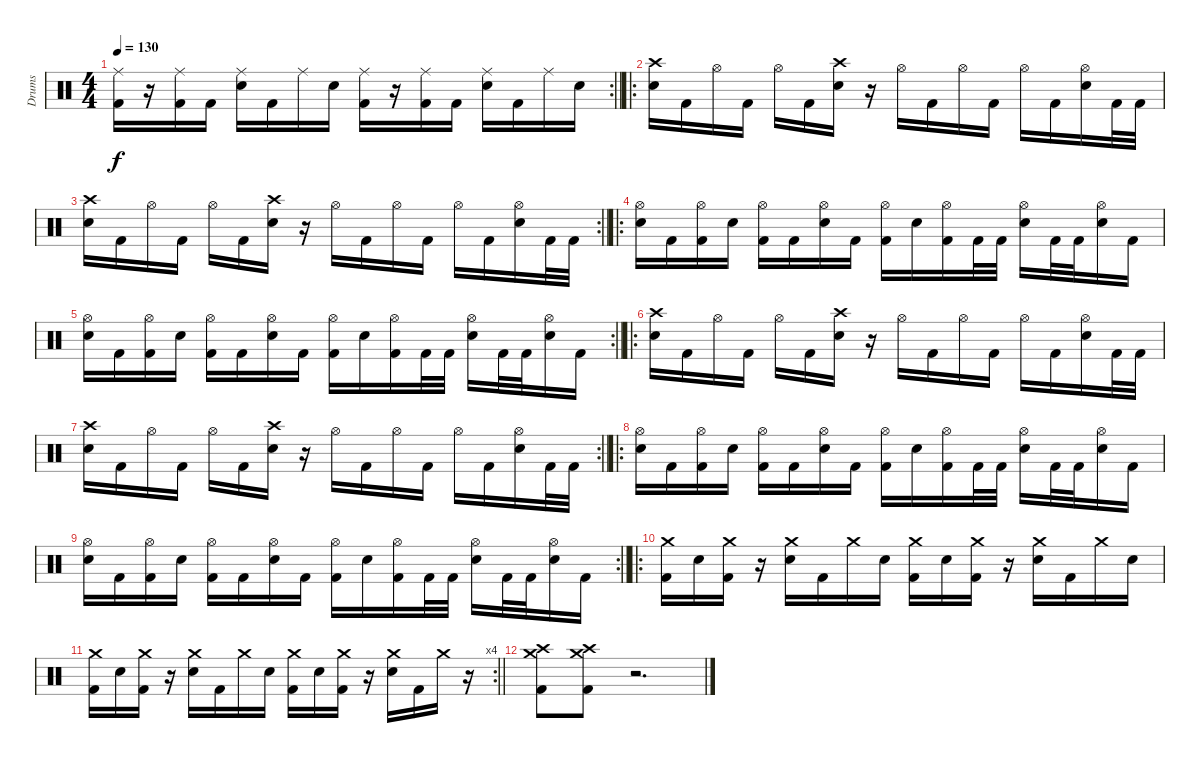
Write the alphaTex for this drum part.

\track ("Drums" "Drums") {instrument percussion}
\staff {score}
\articulation defaults
\rc 2
\ts (4 4)
\tempo 130
\clef neutral
\barLineRight lightlight
\ks c
("Ride (middle)" "Kick (hit) 2").16{dy f} r.16 ("Ride (middle)" "Kick (hit) 2").16 "Kick (hit) 2".16 ("Ride (middle)" "Electric Snare (hit)").16 "Kick (hit) 2".16 "Ride (middle)".16 "Electric Snare (hit)".16 ("Ride (middle)" "Kick (hit) 2").16 r.16 ("Ride (middle)" "Kick (hit) 2").16 "Kick (hit) 2".16 ("Ride (middle)" "Electric Snare (hit)").16 "Kick (hit) 2".16 "Ride (middle)".16 "Electric Snare (hit)".16 |
\ro
("Crash high (hit)" "Electric Snare (hit)").16 "Kick (hit) 2".16 "Hi-Hat (open)".16 "Kick (hit) 2".16 "Hi-Hat (open)".16 "Kick (hit) 2".16 ("Crash high (hit)" "Electric Snare (hit)").16 r.16 "Hi-Hat (open)".16 "Kick (hit) 2".16 "Hi-Hat (open)".16 "Kick (hit) 2".16 "Hi-Hat (open)".16 "Kick (hit) 2".16 ("Hi-Hat (open)" "Electric Snare (hit)").16 "Kick (hit) 2".32 "Kick (hit) 2".32 |
\rc 2
\barLineRight lightlight
("Crash high (hit)" "Electric Snare (hit)").16 "Kick (hit) 2".16 "Hi-Hat (open)".16 "Kick (hit) 2".16 "Hi-Hat (open)".16 "Kick (hit) 2".16 ("Crash high (hit)" "Electric Snare (hit)").16 r.16 "Hi-Hat (open)".16 "Kick (hit) 2".16 "Hi-Hat (open)".16 "Kick (hit) 2".16 "Hi-Hat (open)".16 "Kick (hit) 2".16 ("Hi-Hat (open)" "Electric Snare (hit)").16 "Kick (hit) 2".32 "Kick (hit) 2".32 |
\ro
("Hi-Hat (open)" "Electric Snare (hit)").16 "Kick (hit) 2".16 ("Hi-Hat (open)" "Kick (hit) 2").16 "Electric Snare (hit)".16 ("Hi-Hat (open)" "Kick (hit) 2").16 "Kick (hit) 2".16 ("Hi-Hat (open)" "Electric Snare (hit)").16 "Kick (hit) 2".16 ("Hi-Hat (open)" "Kick (hit) 2").16 "Electric Snare (hit)".16 ("Hi-Hat (open)" "Kick (hit) 2").16 "Kick (hit) 2".32 "Kick (hit) 2".32 ("Hi-Hat (open)" "Electric Snare (hit)").16 "Kick (hit) 2".32 "Kick (hit) 2".32 ("Hi-Hat (open)" "Electric Snare (hit)").16 "Kick (hit) 2".16 |
\rc 2
\barLineRight lightlight
("Hi-Hat (open)" "Electric Snare (hit)").16 "Kick (hit) 2".16 ("Hi-Hat (open)" "Kick (hit) 2").16 "Electric Snare (hit)".16 ("Hi-Hat (open)" "Kick (hit) 2").16 "Kick (hit) 2".16 ("Hi-Hat (open)" "Electric Snare (hit)").16 "Kick (hit) 2".16 ("Hi-Hat (open)" "Kick (hit) 2").16 "Electric Snare (hit)".16 ("Hi-Hat (open)" "Kick (hit) 2").16 "Kick (hit) 2".32 "Kick (hit) 2".32 ("Hi-Hat (open)" "Electric Snare (hit)").16 "Kick (hit) 2".32 "Kick (hit) 2".32 ("Hi-Hat (open)" "Electric Snare (hit)").16 "Kick (hit) 2".16 |
\ro
("Crash high (hit)" "Electric Snare (hit)").16 "Kick (hit) 2".16 "Hi-Hat (open)".16 "Kick (hit) 2".16 "Hi-Hat (open)".16 "Kick (hit) 2".16 ("Crash high (hit)" "Electric Snare (hit)").16 r.16 "Hi-Hat (open)".16 "Kick (hit) 2".16 "Hi-Hat (open)".16 "Kick (hit) 2".16 "Hi-Hat (open)".16 "Kick (hit) 2".16 ("Hi-Hat (open)" "Electric Snare (hit)").16 "Kick (hit) 2".32 "Kick (hit) 2".32 |
\rc 2
\barLineRight lightlight
("Crash high (hit)" "Electric Snare (hit)").16 "Kick (hit) 2".16 "Hi-Hat (open)".16 "Kick (hit) 2".16 "Hi-Hat (open)".16 "Kick (hit) 2".16 ("Crash high (hit)" "Electric Snare (hit)").16 r.16 "Hi-Hat (open)".16 "Kick (hit) 2".16 "Hi-Hat (open)".16 "Kick (hit) 2".16 "Hi-Hat (open)".16 "Kick (hit) 2".16 ("Hi-Hat (open)" "Electric Snare (hit)").16 "Kick (hit) 2".32 "Kick (hit) 2".32 |
\ro
("Hi-Hat (open)" "Electric Snare (hit)").16 "Kick (hit) 2".16 ("Hi-Hat (open)" "Kick (hit) 2").16 "Electric Snare (hit)".16 ("Hi-Hat (open)" "Kick (hit) 2").16 "Kick (hit) 2".16 ("Hi-Hat (open)" "Electric Snare (hit)").16 "Kick (hit) 2".16 ("Hi-Hat (open)" "Kick (hit) 2").16 "Electric Snare (hit)".16 ("Hi-Hat (open)" "Kick (hit) 2").16 "Kick (hit) 2".32 "Kick (hit) 2".32 ("Hi-Hat (open)" "Electric Snare (hit)").16 "Kick (hit) 2".32 "Kick (hit) 2".32 ("Hi-Hat (open)" "Electric Snare (hit)").16 "Kick (hit) 2".16 |
\rc 2
\barLineRight lightlight
("Hi-Hat (open)" "Electric Snare (hit)").16 "Kick (hit) 2".16 ("Hi-Hat (open)" "Kick (hit) 2").16 "Electric Snare (hit)".16 ("Hi-Hat (open)" "Kick (hit) 2").16 "Kick (hit) 2".16 ("Hi-Hat (open)" "Electric Snare (hit)").16 "Kick (hit) 2".16 ("Hi-Hat (open)" "Kick (hit) 2").16 "Electric Snare (hit)".16 ("Hi-Hat (open)" "Kick (hit) 2").16 "Kick (hit) 2".32 "Kick (hit) 2".32 ("Hi-Hat (open)" "Electric Snare (hit)").16 "Kick (hit) 2".32 "Kick (hit) 2".32 ("Hi-Hat (open)" "Electric Snare (hit)").16 "Kick (hit) 2".16 |
\ro
("Crash medium (hit)" "Kick (hit) 2").16 "Electric Snare (hit)".16 ("Crash medium (hit)" "Kick (hit) 2").16 r.16 ("Crash medium (hit)" "Electric Snare (hit)").16 "Kick (hit) 2".16 "Crash medium (hit)".16 "Electric Snare (hit)".16 ("Crash medium (hit)" "Kick (hit) 2").16 "Electric Snare (hit)".16 ("Crash medium (hit)" "Kick (hit) 2").16 r.16 ("Crash medium (hit)" "Electric Snare (hit)").16 "Kick (hit) 2".16 "Crash medium (hit)".16 "Electric Snare (hit)".16 |
\rc 4
\barLineRight lightlight
("Crash medium (hit)" "Kick (hit) 2").16 "Electric Snare (hit)".16 ("Crash medium (hit)" "Kick (hit) 2").16 r.16 ("Crash medium (hit)" "Electric Snare (hit)").16 "Kick (hit) 2".16 "Crash medium (hit)".16 "Electric Snare (hit)".16 ("Crash medium (hit)" "Kick (hit) 2").16 "Electric Snare (hit)".16 ("Crash medium (hit)" "Kick (hit) 2").16 r.16 ("Crash medium (hit)" "Electric Snare (hit)").16 "Kick (hit) 2".16 "Crash medium (hit)".16 r.16 |
("Crash high (hit)" "Crash medium (hit)" "Kick (hit) 2").8 ("Crash high (hit)" "Crash medium (hit)" "Kick (hit) 2").8 r.2{d}
